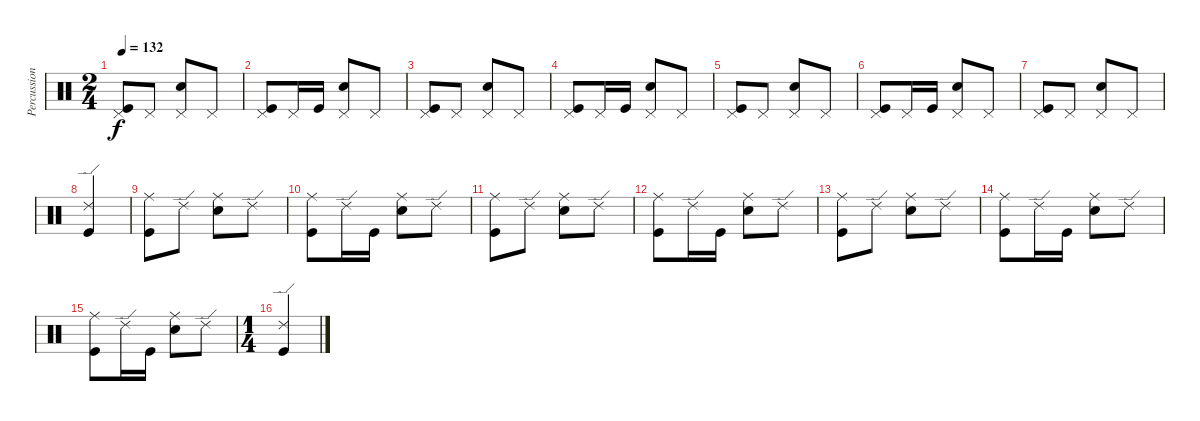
\track ("Percussion" "Percussion") {instrument percussion}
\staff {score}
\articulation defaults
\ts (2 4)
\tempo 132
\clef neutral
\ks c
("Pedal Hi-Hat (hit)" "Kick (hit)").8{dy f} "Pedal Hi-Hat (hit)".8 ("Pedal Hi-Hat (hit)" "Electric Snare (hit)").8 "Pedal Hi-Hat (hit)".8 |
("Pedal Hi-Hat (hit)" "Kick (hit)").8 "Pedal Hi-Hat (hit)".16 "Kick (hit)".16 ("Pedal Hi-Hat (hit)" "Electric Snare (hit)").8 "Pedal Hi-Hat (hit)".8 |
("Pedal Hi-Hat (hit)" "Kick (hit)").8 "Pedal Hi-Hat (hit)".8 ("Pedal Hi-Hat (hit)" "Electric Snare (hit)").8 "Pedal Hi-Hat (hit)".8 |
("Pedal Hi-Hat (hit)" "Kick (hit)").8 "Pedal Hi-Hat (hit)".16 "Kick (hit)".16 ("Pedal Hi-Hat (hit)" "Electric Snare (hit)").8 "Pedal Hi-Hat (hit)".8 |
("Pedal Hi-Hat (hit)" "Kick (hit)").8 "Pedal Hi-Hat (hit)".8 ("Pedal Hi-Hat (hit)" "Electric Snare (hit)").8 "Pedal Hi-Hat (hit)".8 |
("Pedal Hi-Hat (hit)" "Kick (hit)").8 "Pedal Hi-Hat (hit)".16 "Kick (hit)".16 ("Pedal Hi-Hat (hit)" "Electric Snare (hit)").8 "Pedal Hi-Hat (hit)".8 |
("Pedal Hi-Hat (hit)" "Kick (hit)").8 "Pedal Hi-Hat (hit)".8 ("Pedal Hi-Hat (hit)" "Electric Snare (hit)").8 "Pedal Hi-Hat (hit)".8 |
("Ride (edge) 2" "Kick (hit)").4 |
("Ride (middle)" "Kick (hit)").8 "Ride (edge) 2".8 ("Ride (middle)" "Electric Snare (hit)").8 "Ride (edge) 2".8 |
("Ride (middle)" "Kick (hit)").8 "Ride (edge) 2".16 "Kick (hit)".16 ("Ride (middle)" "Electric Snare (hit)").8 "Ride (edge) 2".8 |
("Ride (middle)" "Kick (hit)").8 "Ride (edge) 2".8 ("Ride (middle)" "Electric Snare (hit)").8 "Ride (edge) 2".8 |
("Ride (middle)" "Kick (hit)").8 "Ride (edge) 2".16 "Kick (hit)".16 ("Ride (middle)" "Electric Snare (hit)").8 "Ride (edge) 2".8 |
("Ride (middle)" "Kick (hit)").8 "Ride (edge) 2".8 ("Ride (middle)" "Electric Snare (hit)").8 "Ride (edge) 2".8 |
("Ride (middle)" "Kick (hit)").8 "Ride (edge) 2".16 "Kick (hit)".16 ("Ride (middle)" "Electric Snare (hit)").8 "Ride (edge) 2".8 |
("Ride (middle)" "Kick (hit)").8 "Ride (edge) 2".16 "Kick (hit)".16 ("Ride (middle)" "Electric Snare (hit)").8 "Ride (edge) 2".8 |
\ts (1 4)
("Ride (edge) 2" "Kick (hit)").4
